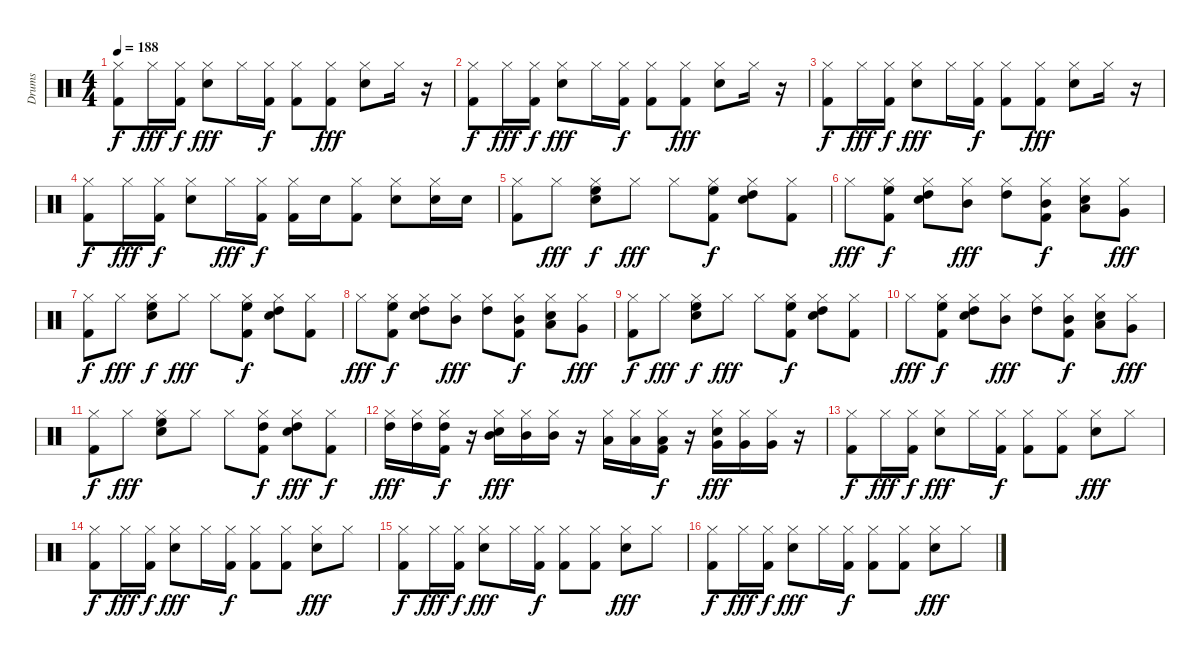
\track ("Drums" "Drums") {instrument percussion}
\staff {score}
\articulation defaults
\ts (4 4)
\tempo 188
\clef neutral
\ks c
("Hi-Hat (closed)" "Kick (hit) 2").8{dy f} "Hi-Hat (closed)".16{dy fff} ("Hi-Hat (closed)" "Kick (hit) 2").16{dy f} ("Hi-Hat (closed)" "Snare (hit) 2").8{dy fff} "Hi-Hat (closed)".16 ("Hi-Hat (closed)" "Kick (hit) 2").16{dy f} ("Hi-Hat (closed)" "Kick (hit) 2").8 ("Hi-Hat (closed)" "Kick (hit) 2").8{dy fff} ("Hi-Hat (closed)" "Snare (hit) 2").8 "Hi-Hat (closed)".16 r.16 |
("Hi-Hat (closed)" "Kick (hit) 2").8{dy f} "Hi-Hat (closed)".16{dy fff} ("Hi-Hat (closed)" "Kick (hit) 2").16{dy f} ("Hi-Hat (closed)" "Snare (hit) 2").8{dy fff} "Hi-Hat (closed)".16 ("Hi-Hat (closed)" "Kick (hit) 2").16{dy f} ("Hi-Hat (closed)" "Kick (hit) 2").8 ("Hi-Hat (closed)" "Kick (hit) 2").8{dy fff} ("Hi-Hat (closed)" "Snare (hit) 2").8 "Hi-Hat (closed)".16 r.16 |
("Hi-Hat (closed)" "Kick (hit) 2").8{dy f} "Hi-Hat (closed)".16{dy fff} ("Hi-Hat (closed)" "Kick (hit) 2").16{dy f} ("Hi-Hat (closed)" "Snare (hit) 2").8{dy fff} "Hi-Hat (closed)".16 ("Hi-Hat (closed)" "Kick (hit) 2").16{dy f} ("Hi-Hat (closed)" "Kick (hit) 2").8 ("Hi-Hat (closed)" "Kick (hit) 2").8{dy fff} ("Hi-Hat (closed)" "Snare (hit) 2").8 "Hi-Hat (closed)".16 r.16 |
("Hi-Hat (closed)" "Kick (hit) 2").8{dy f} "Hi-Hat (closed)".16{dy fff} ("Hi-Hat (closed)" "Kick (hit) 2").16{dy f} ("Hi-Hat (closed)" "Snare (hit) 2").8 "Hi-Hat (closed)".16{dy fff} ("Hi-Hat (closed)" "Kick (hit) 2").16{dy f} ("Hi-Hat (closed)" "Kick (hit) 2").16 "Snare (hit) 2".16 ("Hi-Hat (closed)" "Kick (hit) 2").8 ("Hi-Hat (closed)" "Snare (hit) 2").8 ("Hi-Hat (closed)" "Snare (hit) 2").16 "Snare (hit) 2".16 |
("Hi-Hat (closed)" "Kick (hit) 2").8 "Hi-Hat (closed)".8{dy fff} ("Hi-Hat (closed)" "Snare (hit) 2" "High Floor Tom (hit)").8{dy f} "Hi-Hat (closed)".8{dy fff} "Hi-Hat (closed)".8 ("Hi-Hat (closed)" "High Floor Tom (hit)" "Kick (hit) 2").8{dy f} ("Hi-Hat (closed)" "Snare (hit) 2" "High Tom (hit)").8 ("Hi-Hat (closed)" "Kick (hit) 2").8 |
"Hi-Hat (closed)".8{dy fff} ("Hi-Hat (closed)" "High Floor Tom (hit)" "Kick (hit) 2").8{dy f} ("Hi-Hat (closed)" "Snare (hit) 2" "High Tom (hit)").8 ("Hi-Hat (closed)" "Mid Tom (hit)").8{dy fff} ("Hi-Hat (closed)" "High Tom (hit)").8 ("Hi-Hat (closed)" "Mid Tom (hit)" "Kick (hit) 2").8{dy f} ("Hi-Hat (closed)" "Snare (hit) 2" "Low Tom (hit)").8 ("Hi-Hat (closed)" "Very Low Tom (hit)").8{dy fff} |
("Hi-Hat (closed)" "Kick (hit) 2").8{dy f} "Hi-Hat (closed)".8{dy fff} ("Hi-Hat (closed)" "Snare (hit) 2" "High Floor Tom (hit)").8{dy f} "Hi-Hat (closed)".8{dy fff} "Hi-Hat (closed)".8 ("Hi-Hat (closed)" "High Floor Tom (hit)" "Kick (hit) 2").8{dy f} ("Hi-Hat (closed)" "Snare (hit) 2" "High Tom (hit)").8 ("Hi-Hat (closed)" "Kick (hit) 2").8 |
"Hi-Hat (closed)".8{dy fff} ("Hi-Hat (closed)" "High Floor Tom (hit)" "Kick (hit) 2").8{dy f} ("Hi-Hat (closed)" "Snare (hit) 2" "High Tom (hit)").8 ("Hi-Hat (closed)" "Mid Tom (hit)").8{dy fff} ("Hi-Hat (closed)" "High Tom (hit)").8 ("Hi-Hat (closed)" "Mid Tom (hit)" "Kick (hit) 2").8{dy f} ("Hi-Hat (closed)" "Snare (hit) 2" "Low Tom (hit)").8 ("Hi-Hat (closed)" "Very Low Tom (hit)").8{dy fff} |
("Hi-Hat (closed)" "Kick (hit) 2").8{dy f} "Hi-Hat (closed)".8{dy fff} ("Hi-Hat (closed)" "Snare (hit) 2" "High Floor Tom (hit)").8{dy f} "Hi-Hat (closed)".8{dy fff} "Hi-Hat (closed)".8 ("Hi-Hat (closed)" "High Floor Tom (hit)" "Kick (hit) 2").8{dy f} ("Hi-Hat (closed)" "Snare (hit) 2" "High Tom (hit)").8 ("Hi-Hat (closed)" "Kick (hit) 2").8 |
"Hi-Hat (closed)".8{dy fff} ("Hi-Hat (closed)" "High Floor Tom (hit)" "Kick (hit) 2").8{dy f} ("Hi-Hat (closed)" "Snare (hit) 2" "High Tom (hit)").8 ("Hi-Hat (closed)" "Mid Tom (hit)").8{dy fff} ("Hi-Hat (closed)" "High Tom (hit)").8 ("Hi-Hat (closed)" "Mid Tom (hit)" "Kick (hit) 2").8{dy f} ("Hi-Hat (closed)" "Snare (hit) 2" "Low Tom (hit)").8 ("Hi-Hat (closed)" "Very Low Tom (hit)").8{dy fff} |
("Hi-Hat (closed)" "Kick (hit) 2").8{dy f} "Hi-Hat (closed)".8{dy fff} ("Hi-Hat (closed)" "Snare (hit) 2" "High Floor Tom (hit)").8 "Hi-Hat (closed)".8 "Hi-Hat (closed)".8 ("Hi-Hat (closed)" "High Tom (hit)" "Kick (hit) 2").8{dy f} ("Hi-Hat (closed)" "Snare (hit) 2" "High Tom (hit)").8{dy fff} ("Hi-Hat (closed)" "Kick (hit) 2").8{dy f} |
("Hi-Hat (closed)" "High Tom (hit)").16{dy fff} ("Hi-Hat (closed)" "High Tom (hit)").16 ("Hi-Hat (closed)" "High Tom (hit)" "Kick (hit) 2").16{dy f} r.16 ("Hi-Hat (closed)" "Snare (hit) 2" "Mid Tom (hit)").16{dy fff} ("Hi-Hat (closed)" "Mid Tom (hit)").16 ("Hi-Hat (closed)" "Mid Tom (hit)").16 r.16 ("Hi-Hat (closed)" "Low Tom (hit)").16 ("Hi-Hat (closed)" "Low Tom (hit)").16 ("Hi-Hat (closed)" "Low Tom (hit)" "Kick (hit) 2").16{dy f} r.16 ("Hi-Hat (closed)" "Snare (hit) 2" "Very Low Tom (hit)").16{dy fff} ("Hi-Hat (closed)" "Very Low Tom (hit)").16 ("Hi-Hat (closed)" "Very Low Tom (hit)").16 r.16 |
("Hi-Hat (closed)" "Kick (hit) 2").8{dy f} "Hi-Hat (closed)".16{dy fff} ("Hi-Hat (closed)" "Kick (hit) 2").16{dy f} ("Hi-Hat (closed)" "Snare (hit) 2").8{dy fff} "Hi-Hat (closed)".16 ("Hi-Hat (closed)" "Kick (hit) 2").16{dy f} ("Hi-Hat (closed)" "Kick (hit) 2").8 ("Hi-Hat (closed)" "Kick (hit) 2").8 ("Hi-Hat (closed)" "Snare (hit) 2").8{dy fff} "Hi-Hat (closed)".8 |
("Hi-Hat (closed)" "Kick (hit) 2").8{dy f} "Hi-Hat (closed)".16{dy fff} ("Hi-Hat (closed)" "Kick (hit) 2").16{dy f} ("Hi-Hat (closed)" "Snare (hit) 2").8{dy fff} "Hi-Hat (closed)".16 ("Hi-Hat (closed)" "Kick (hit) 2").16{dy f} ("Hi-Hat (closed)" "Kick (hit) 2").8 ("Hi-Hat (closed)" "Kick (hit) 2").8 ("Hi-Hat (closed)" "Snare (hit) 2").8{dy fff} "Hi-Hat (closed)".8 |
("Hi-Hat (closed)" "Kick (hit) 2").8{dy f} "Hi-Hat (closed)".16{dy fff} ("Hi-Hat (closed)" "Kick (hit) 2").16{dy f} ("Hi-Hat (closed)" "Snare (hit) 2").8{dy fff} "Hi-Hat (closed)".16 ("Hi-Hat (closed)" "Kick (hit) 2").16{dy f} ("Hi-Hat (closed)" "Kick (hit) 2").8 ("Hi-Hat (closed)" "Kick (hit) 2").8 ("Hi-Hat (closed)" "Snare (hit) 2").8{dy fff} "Hi-Hat (closed)".8 |
("Hi-Hat (closed)" "Kick (hit) 2").8{dy f} "Hi-Hat (closed)".16{dy fff} ("Hi-Hat (closed)" "Kick (hit) 2").16{dy f} ("Hi-Hat (closed)" "Snare (hit) 2").8{dy fff} "Hi-Hat (closed)".16 ("Hi-Hat (closed)" "Kick (hit) 2").16{dy f} ("Hi-Hat (closed)" "Kick (hit) 2").8 ("Hi-Hat (closed)" "Kick (hit) 2").8 ("Hi-Hat (closed)" "Snare (hit) 2").8{dy fff} "Hi-Hat (closed)".8
